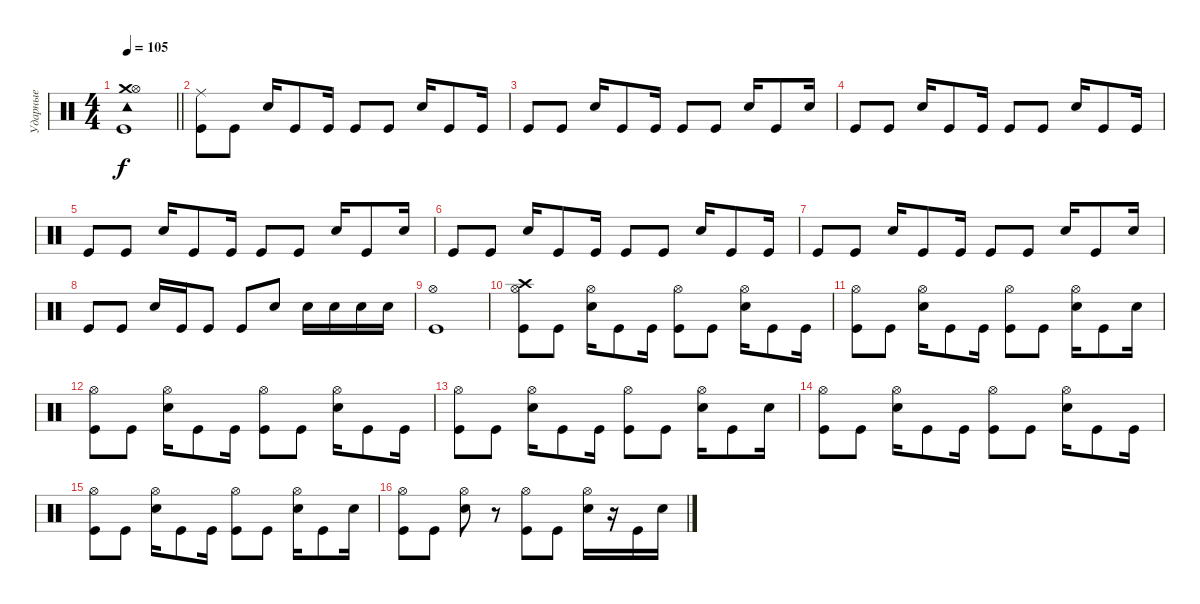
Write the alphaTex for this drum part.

\track ("Ударные" "Ударные") {instrument percussion}
\staff {score}
\articulation defaults
\ts (4 4)
\tempo 105
\clef neutral
\barLineRight lightlight
\ks c
("Kick (hit)" "Crash medium (hit)" "Hi-Hat (open)" "Tambourine (hit)").1{dy f} |
("Kick (hit)" "Ride (middle)").8 "Kick (hit)".8 "Electric Snare (hit)".16 "Kick (hit)".8 "Kick (hit)".16 "Kick (hit)".8 "Kick (hit)".8 "Electric Snare (hit)".16 "Kick (hit)".8 "Kick (hit)".16 |
"Kick (hit)".8 "Kick (hit)".8 "Electric Snare (hit)".16 "Kick (hit)".8 "Kick (hit)".16 "Kick (hit)".8 "Kick (hit)".8 "Electric Snare (hit)".16 "Kick (hit)".8 "Electric Snare (hit)".16 |
"Kick (hit)".8 "Kick (hit)".8 "Electric Snare (hit)".16 "Kick (hit)".8 "Kick (hit)".16 "Kick (hit)".8 "Kick (hit)".8 "Electric Snare (hit)".16 "Kick (hit)".8 "Kick (hit)".16 |
"Kick (hit)".8 "Kick (hit)".8 "Electric Snare (hit)".16 "Kick (hit)".8 "Kick (hit)".16 "Kick (hit)".8 "Kick (hit)".8 "Electric Snare (hit)".16 "Kick (hit)".8 "Electric Snare (hit)".16 |
"Kick (hit)".8 "Kick (hit)".8 "Electric Snare (hit)".16 "Kick (hit)".8 "Kick (hit)".16 "Kick (hit)".8 "Kick (hit)".8 "Electric Snare (hit)".16 "Kick (hit)".8 "Kick (hit)".16 |
"Kick (hit)".8 "Kick (hit)".8 "Electric Snare (hit)".16 "Kick (hit)".8 "Kick (hit)".16 "Kick (hit)".8 "Kick (hit)".8 "Electric Snare (hit)".16 "Kick (hit)".8 "Electric Snare (hit)".16 |
"Kick (hit)".8 "Kick (hit)".8 "Electric Snare (hit)".16 "Kick (hit)".16 "Kick (hit)".8 "Kick (hit)".8 "Electric Snare (hit)".8 "Electric Snare (hit)".16 "Electric Snare (hit)".16 "Electric Snare (hit)".16 "Electric Snare (hit)".16 |
("Kick (hit)" "Hi-Hat (open)").1 |
("Crash high (hit)" "Kick (hit)" "Hi-Hat (open)").8 "Kick (hit)".8 ("Electric Snare (hit)" "Hi-Hat (open)").16 "Kick (hit)".8 "Kick (hit)".16 ("Kick (hit)" "Hi-Hat (open)").8 "Kick (hit)".8 ("Electric Snare (hit)" "Hi-Hat (open)").16 "Kick (hit)".8 "Kick (hit)".16 |
("Kick (hit)" "Hi-Hat (open)").8 "Kick (hit)".8 ("Electric Snare (hit)" "Hi-Hat (open)").16 "Kick (hit)".8 "Kick (hit)".16 ("Kick (hit)" "Hi-Hat (open)").8 "Kick (hit)".8 ("Electric Snare (hit)" "Hi-Hat (open)").16 "Kick (hit)".8 "Electric Snare (hit)".16 |
("Kick (hit)" "Hi-Hat (open)").8 "Kick (hit)".8 ("Electric Snare (hit)" "Hi-Hat (open)").16 "Kick (hit)".8 "Kick (hit)".16 ("Kick (hit)" "Hi-Hat (open)").8 "Kick (hit)".8 ("Electric Snare (hit)" "Hi-Hat (open)").16 "Kick (hit)".8 "Kick (hit)".16 |
("Kick (hit)" "Hi-Hat (open)").8 "Kick (hit)".8 ("Electric Snare (hit)" "Hi-Hat (open)").16 "Kick (hit)".8 "Kick (hit)".16 ("Kick (hit)" "Hi-Hat (open)").8 "Kick (hit)".8 ("Electric Snare (hit)" "Hi-Hat (open)").16 "Kick (hit)".8 "Electric Snare (hit)".16 |
("Kick (hit)" "Hi-Hat (open)").8 "Kick (hit)".8 ("Electric Snare (hit)" "Hi-Hat (open)").16 "Kick (hit)".8 "Kick (hit)".16 ("Kick (hit)" "Hi-Hat (open)").8 "Kick (hit)".8 ("Electric Snare (hit)" "Hi-Hat (open)").16 "Kick (hit)".8 "Kick (hit)".16 |
("Kick (hit)" "Hi-Hat (open)").8 "Kick (hit)".8 ("Electric Snare (hit)" "Hi-Hat (open)").16 "Kick (hit)".8 "Kick (hit)".16 ("Kick (hit)" "Hi-Hat (open)").8 "Kick (hit)".8 ("Electric Snare (hit)" "Hi-Hat (open)").16 "Kick (hit)".8 "Electric Snare (hit)".16 |
("Kick (hit)" "Hi-Hat (open)").8 "Kick (hit)".8 ("Electric Snare (hit)" "Hi-Hat (open)").8 r.8 ("Kick (hit)" "Hi-Hat (open)").8 "Kick (hit)".8 ("Electric Snare (hit)" "Hi-Hat (open)").16 r.16 "Kick (hit)".16 "Electric Snare (hit)".16
